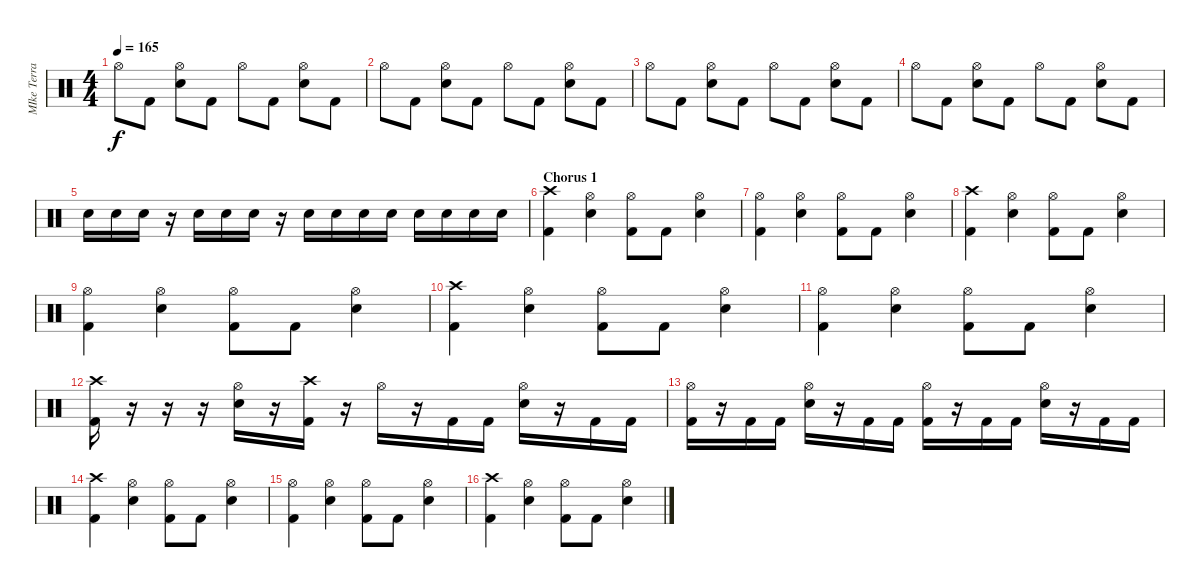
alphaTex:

\track ("MIke Terrana - Batteria" "MIke Terra") {instrument percussion}
\staff {score}
\articulation defaults
\ts (4 4)
\tempo 165
\clef neutral
\ks c "Hi-Hat (open)".8{dy f} "Kick (hit) 2".8
("Electric Snare (hit)" "Hi-Hat (open)").8 "Kick (hit) 2".8 "Hi-Hat (open)".8 "Kick (hit) 2".8 ("Electric Snare (hit)" "Hi-Hat (open)").8 "Kick (hit) 2".8 |
"Hi-Hat (open)".8 "Kick (hit) 2".8 ("Electric Snare (hit)" "Hi-Hat (open)").8 "Kick (hit) 2".8 "Hi-Hat (open)".8 "Kick (hit) 2".8 ("Electric Snare (hit)" "Hi-Hat (open)").8 "Kick (hit) 2".8 |
"Hi-Hat (open)".8 "Kick (hit) 2".8 ("Electric Snare (hit)" "Hi-Hat (open)").8 "Kick (hit) 2".8 "Hi-Hat (open)".8 "Kick (hit) 2".8 ("Electric Snare (hit)" "Hi-Hat (open)").8 "Kick (hit) 2".8 |
"Hi-Hat (open)".8 "Kick (hit) 2".8 ("Electric Snare (hit)" "Hi-Hat (open)").8 "Kick (hit) 2".8 "Hi-Hat (open)".8 "Kick (hit) 2".8 ("Electric Snare (hit)" "Hi-Hat (open)").8 "Kick (hit) 2".8 |
"Electric Snare (hit)".16 "Electric Snare (hit)".16 "Electric Snare (hit)".16 r.16 "Electric Snare (hit)".16 "Electric Snare (hit)".16 "Electric Snare (hit)".16 r.16 "Electric Snare (hit)".16 "Electric Snare (hit)".16 "Electric Snare (hit)".16 "Electric Snare (hit)".16 "Electric Snare (hit)".16 "Electric Snare (hit)".16 "Electric Snare (hit)".16 "Electric Snare (hit)".16 |
\section ("" "Chorus 1")
("Kick (hit) 2" "Crash high (hit)").4 ("Electric Snare (hit)" "Hi-Hat (open)").4 ("Kick (hit) 2" "Hi-Hat (open)").8 "Kick (hit) 2".8 ("Electric Snare (hit)" "Hi-Hat (open)").4 |
("Kick (hit) 2" "Hi-Hat (open)").4 ("Electric Snare (hit)" "Hi-Hat (open)").4 ("Kick (hit) 2" "Hi-Hat (open)").8 "Kick (hit) 2".8 ("Electric Snare (hit)" "Hi-Hat (open)").4 |
("Kick (hit) 2" "Crash high (hit)").4 ("Electric Snare (hit)" "Hi-Hat (open)").4 ("Kick (hit) 2" "Hi-Hat (open)").8 "Kick (hit) 2".8 ("Electric Snare (hit)" "Hi-Hat (open)").4 |
("Kick (hit) 2" "Hi-Hat (open)").4 ("Electric Snare (hit)" "Hi-Hat (open)").4 ("Kick (hit) 2" "Hi-Hat (open)").8 "Kick (hit) 2".8 ("Electric Snare (hit)" "Hi-Hat (open)").4 |
("Kick (hit) 2" "Crash high (hit)").4 ("Electric Snare (hit)" "Hi-Hat (open)").4 ("Kick (hit) 2" "Hi-Hat (open)").8 "Kick (hit) 2".8 ("Electric Snare (hit)" "Hi-Hat (open)").4 |
("Kick (hit) 2" "Hi-Hat (open)").4 ("Electric Snare (hit)" "Hi-Hat (open)").4 ("Kick (hit) 2" "Hi-Hat (open)").8 "Kick (hit) 2".8 ("Electric Snare (hit)" "Hi-Hat (open)").4 |
("Kick (hit) 2" "Crash high (hit)").16 r.16 r.16 r.16 ("Electric Snare (hit)" "Hi-Hat (open)").16 r.16 ("Kick (hit) 2" "Crash high (hit)").16 r.16 "Hi-Hat (open)".16 r.16 "Kick (hit) 2".16 "Kick (hit) 2".16 ("Electric Snare (hit)" "Hi-Hat (open)").16 r.16 "Kick (hit) 2".16 "Kick (hit) 2".16 |
("Kick (hit) 2" "Hi-Hat (open)").16 r.16 "Kick (hit) 2".16 "Kick (hit) 2".16 ("Electric Snare (hit)" "Hi-Hat (open)").16 r.16 "Kick (hit) 2".16 "Kick (hit) 2".16 ("Kick (hit) 2" "Hi-Hat (open)").16 r.16 "Kick (hit) 2".16 "Kick (hit) 2".16 ("Electric Snare (hit)" "Hi-Hat (open)").16 r.16 "Kick (hit) 2".16 "Kick (hit) 2".16 |
("Kick (hit) 2" "Crash high (hit)").4 ("Electric Snare (hit)" "Hi-Hat (open)").4 ("Kick (hit) 2" "Hi-Hat (open)").8 "Kick (hit) 2".8 ("Electric Snare (hit)" "Hi-Hat (open)").4 |
("Kick (hit) 2" "Hi-Hat (open)").4 ("Electric Snare (hit)" "Hi-Hat (open)").4 ("Kick (hit) 2" "Hi-Hat (open)").8 "Kick (hit) 2".8 ("Electric Snare (hit)" "Hi-Hat (open)").4 |
("Kick (hit) 2" "Crash high (hit)").4 ("Electric Snare (hit)" "Hi-Hat (open)").4 ("Kick (hit) 2" "Hi-Hat (open)").8 "Kick (hit) 2".8 ("Electric Snare (hit)" "Hi-Hat (open)").4
